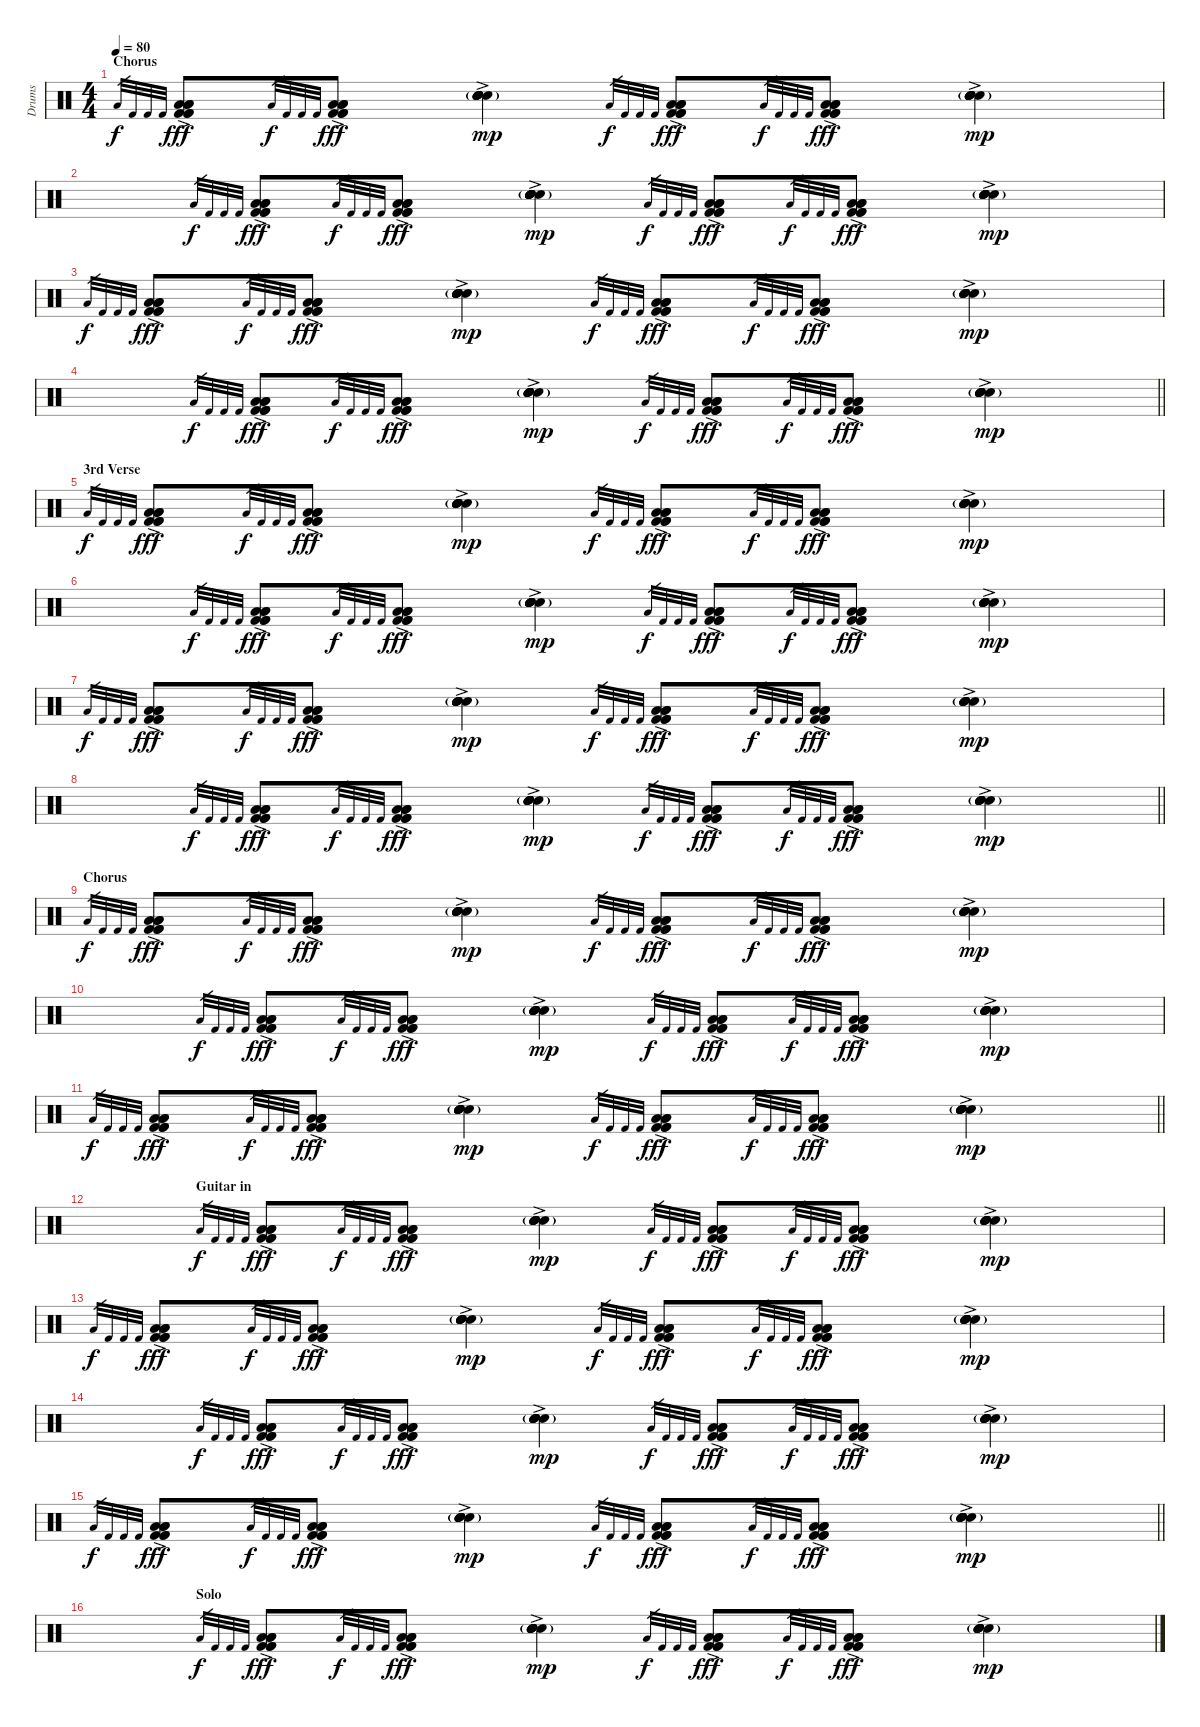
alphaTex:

\track ("Drums" "Drums") {instrument percussion}
\staff {score}
\articulation defaults
\ts (4 4)
\section ("" "Chorus")
\tempo 80
\clef neutral
\ks c "Low Tom (hit)".32{gr dy f} "Kick (hit) 2".32{gr} "Kick (hit) 2".32{gr} "Kick (hit) 2".32{gr}
("Low Floor Tom (hit)"{ac} "Low Tom (hit)"{ac} "Low Tom (hit)"{ac} "Kick (hit) 2"{ac} "Kick (hit) 2"{ac} "Kick (hit) 2"{ac}).8{dy fff} "Low Tom (hit)".32{gr dy f} "Kick (hit) 2".32{gr} "Kick (hit) 2".32{gr} "Kick (hit) 2".32{gr} ("Low Floor Tom (hit)"{ac} "Low Tom (hit)"{ac} "Low Tom (hit)"{ac} "Kick (hit) 2"{ac} "Kick (hit) 2"{ac} "Kick (hit) 2"{ac}).8{dy fff} ("Hand Clap (hit)"{ac} "Hand Clap (hit)"{ac} "Hand Clap (hit)"{ac} "Hand Clap (hit)"{ac} "Hand Clap (hit)"{ac} "Electric Snare (hit)"{g ac}).4{dy mp} "Low Tom (hit)".32{gr dy f} "Kick (hit) 2".32{gr} "Kick (hit) 2".32{gr} "Kick (hit) 2".32{gr} ("Low Floor Tom (hit)"{ac} "Low Tom (hit)"{ac} "Low Tom (hit)"{ac} "Kick (hit) 2"{ac} "Kick (hit) 2"{ac} "Kick (hit) 2"{ac}).8{dy fff} "Low Tom (hit)".32{gr dy f} "Kick (hit) 2".32{gr} "Kick (hit) 2".32{gr} "Kick (hit) 2".32{gr} ("Low Floor Tom (hit)"{ac} "Low Tom (hit)"{ac} "Low Tom (hit)"{ac} "Kick (hit) 2"{ac} "Kick (hit) 2"{ac} "Kick (hit) 2"{ac}).8{dy fff} ("Hand Clap (hit)"{ac} "Hand Clap (hit)"{ac} "Hand Clap (hit)"{ac} "Hand Clap (hit)"{ac} "Hand Clap (hit)"{ac} "Electric Snare (hit)"{g ac}).4{dy mp} |
"Low Tom (hit)".32{gr dy f} "Kick (hit) 2".32{gr} "Kick (hit) 2".32{gr} "Kick (hit) 2".32{gr} ("Low Floor Tom (hit)"{ac} "Low Tom (hit)"{ac} "Low Tom (hit)"{ac} "Kick (hit) 2"{ac} "Kick (hit) 2"{ac} "Kick (hit) 2"{ac}).8{dy fff} "Low Tom (hit)".32{gr dy f} "Kick (hit) 2".32{gr} "Kick (hit) 2".32{gr} "Kick (hit) 2".32{gr} ("Low Floor Tom (hit)"{ac} "Low Tom (hit)"{ac} "Low Tom (hit)"{ac} "Kick (hit) 2"{ac} "Kick (hit) 2"{ac} "Kick (hit) 2"{ac}).8{dy fff} ("Hand Clap (hit)"{ac} "Hand Clap (hit)"{ac} "Hand Clap (hit)"{ac} "Hand Clap (hit)"{ac} "Hand Clap (hit)"{ac} "Electric Snare (hit)"{g ac}).4{dy mp} "Low Tom (hit)".32{gr dy f} "Kick (hit) 2".32{gr} "Kick (hit) 2".32{gr} "Kick (hit) 2".32{gr} ("Low Floor Tom (hit)"{ac} "Low Tom (hit)"{ac} "Low Tom (hit)"{ac} "Kick (hit) 2"{ac} "Kick (hit) 2"{ac} "Kick (hit) 2"{ac}).8{dy fff} "Low Tom (hit)".32{gr dy f} "Kick (hit) 2".32{gr} "Kick (hit) 2".32{gr} "Kick (hit) 2".32{gr} ("Low Floor Tom (hit)"{ac} "Low Tom (hit)"{ac} "Low Tom (hit)"{ac} "Kick (hit) 2"{ac} "Kick (hit) 2"{ac} "Kick (hit) 2"{ac}).8{dy fff} ("Hand Clap (hit)"{ac} "Hand Clap (hit)"{ac} "Hand Clap (hit)"{ac} "Hand Clap (hit)"{ac} "Hand Clap (hit)"{ac} "Electric Snare (hit)"{g ac}).4{dy mp} |
"Low Tom (hit)".32{gr dy f} "Kick (hit) 2".32{gr} "Kick (hit) 2".32{gr} "Kick (hit) 2".32{gr} ("Low Floor Tom (hit)"{ac} "Low Tom (hit)"{ac} "Low Tom (hit)"{ac} "Kick (hit) 2"{ac} "Kick (hit) 2"{ac} "Kick (hit) 2"{ac}).8{dy fff} "Low Tom (hit)".32{gr dy f} "Kick (hit) 2".32{gr} "Kick (hit) 2".32{gr} "Kick (hit) 2".32{gr} ("Low Floor Tom (hit)"{ac} "Low Tom (hit)"{ac} "Low Tom (hit)"{ac} "Kick (hit) 2"{ac} "Kick (hit) 2"{ac} "Kick (hit) 2"{ac}).8{dy fff} ("Hand Clap (hit)"{ac} "Hand Clap (hit)"{ac} "Hand Clap (hit)"{ac} "Hand Clap (hit)"{ac} "Hand Clap (hit)"{ac} "Electric Snare (hit)"{g ac}).4{dy mp} "Low Tom (hit)".32{gr dy f} "Kick (hit) 2".32{gr} "Kick (hit) 2".32{gr} "Kick (hit) 2".32{gr} ("Low Floor Tom (hit)"{ac} "Low Tom (hit)"{ac} "Low Tom (hit)"{ac} "Kick (hit) 2"{ac} "Kick (hit) 2"{ac} "Kick (hit) 2"{ac}).8{dy fff} "Low Tom (hit)".32{gr dy f} "Kick (hit) 2".32{gr} "Kick (hit) 2".32{gr} "Kick (hit) 2".32{gr} ("Low Floor Tom (hit)"{ac} "Low Tom (hit)"{ac} "Low Tom (hit)"{ac} "Kick (hit) 2"{ac} "Kick (hit) 2"{ac} "Kick (hit) 2"{ac}).8{dy fff} ("Hand Clap (hit)"{ac} "Hand Clap (hit)"{ac} "Hand Clap (hit)"{ac} "Hand Clap (hit)"{ac} "Hand Clap (hit)"{ac} "Electric Snare (hit)"{g ac}).4{dy mp} |
\barLineRight lightlight "Low Tom (hit)".32{gr dy f} "Kick (hit) 2".32{gr} "Kick (hit) 2".32{gr} "Kick (hit) 2".32{gr}
("Low Floor Tom (hit)"{ac} "Low Tom (hit)"{ac} "Low Tom (hit)"{ac} "Kick (hit) 2"{ac} "Kick (hit) 2"{ac} "Kick (hit) 2"{ac}).8{dy fff} "Low Tom (hit)".32{gr dy f} "Kick (hit) 2".32{gr} "Kick (hit) 2".32{gr} "Kick (hit) 2".32{gr} ("Low Floor Tom (hit)"{ac} "Low Tom (hit)"{ac} "Low Tom (hit)"{ac} "Kick (hit) 2"{ac} "Kick (hit) 2"{ac} "Kick (hit) 2"{ac}).8{dy fff} ("Hand Clap (hit)"{ac} "Hand Clap (hit)"{ac} "Hand Clap (hit)"{ac} "Hand Clap (hit)"{ac} "Hand Clap (hit)"{ac} "Electric Snare (hit)"{g ac}).4{dy mp} "Low Tom (hit)".32{gr dy f} "Kick (hit) 2".32{gr} "Kick (hit) 2".32{gr} "Kick (hit) 2".32{gr} ("Low Floor Tom (hit)"{ac} "Low Tom (hit)"{ac} "Low Tom (hit)"{ac} "Kick (hit) 2"{ac} "Kick (hit) 2"{ac} "Kick (hit) 2"{ac}).8{dy fff} "Low Tom (hit)".32{gr dy f} "Kick (hit) 2".32{gr} "Kick (hit) 2".32{gr} "Kick (hit) 2".32{gr} ("Low Floor Tom (hit)"{ac} "Low Tom (hit)"{ac} "Low Tom (hit)"{ac} "Kick (hit) 2"{ac} "Kick (hit) 2"{ac} "Kick (hit) 2"{ac}).8{dy fff} ("Hand Clap (hit)"{ac} "Hand Clap (hit)"{ac} "Hand Clap (hit)"{ac} "Hand Clap (hit)"{ac} "Hand Clap (hit)"{ac} "Electric Snare (hit)"{g ac}).4{dy mp} |
\section ("" "3rd Verse")
"Low Tom (hit)".32{gr dy f} "Kick (hit) 2".32{gr} "Kick (hit) 2".32{gr} "Kick (hit) 2".32{gr} ("Low Floor Tom (hit)"{ac} "Low Tom (hit)"{ac} "Low Tom (hit)"{ac} "Kick (hit) 2"{ac} "Kick (hit) 2"{ac} "Kick (hit) 2"{ac}).8{dy fff} "Low Tom (hit)".32{gr dy f} "Kick (hit) 2".32{gr} "Kick (hit) 2".32{gr} "Kick (hit) 2".32{gr} ("Low Floor Tom (hit)"{ac} "Low Tom (hit)"{ac} "Low Tom (hit)"{ac} "Kick (hit) 2"{ac} "Kick (hit) 2"{ac} "Kick (hit) 2"{ac}).8{dy fff} ("Hand Clap (hit)"{ac} "Hand Clap (hit)"{ac} "Hand Clap (hit)"{ac} "Hand Clap (hit)"{ac} "Hand Clap (hit)"{ac} "Electric Snare (hit)"{g ac}).4{dy mp} "Low Tom (hit)".32{gr dy f} "Kick (hit) 2".32{gr} "Kick (hit) 2".32{gr} "Kick (hit) 2".32{gr} ("Low Floor Tom (hit)"{ac} "Low Tom (hit)"{ac} "Low Tom (hit)"{ac} "Kick (hit) 2"{ac} "Kick (hit) 2"{ac} "Kick (hit) 2"{ac}).8{dy fff} "Low Tom (hit)".32{gr dy f} "Kick (hit) 2".32{gr} "Kick (hit) 2".32{gr} "Kick (hit) 2".32{gr} ("Low Floor Tom (hit)"{ac} "Low Tom (hit)"{ac} "Low Tom (hit)"{ac} "Kick (hit) 2"{ac} "Kick (hit) 2"{ac} "Kick (hit) 2"{ac}).8{dy fff} ("Hand Clap (hit)"{ac} "Hand Clap (hit)"{ac} "Hand Clap (hit)"{ac} "Hand Clap (hit)"{ac} "Hand Clap (hit)"{ac} "Electric Snare (hit)"{g ac}).4{dy mp} |
"Low Tom (hit)".32{gr dy f} "Kick (hit) 2".32{gr} "Kick (hit) 2".32{gr} "Kick (hit) 2".32{gr} ("Low Floor Tom (hit)"{ac} "Low Tom (hit)"{ac} "Low Tom (hit)"{ac} "Kick (hit) 2"{ac} "Kick (hit) 2"{ac} "Kick (hit) 2"{ac}).8{dy fff} "Low Tom (hit)".32{gr dy f} "Kick (hit) 2".32{gr} "Kick (hit) 2".32{gr} "Kick (hit) 2".32{gr} ("Low Floor Tom (hit)"{ac} "Low Tom (hit)"{ac} "Low Tom (hit)"{ac} "Kick (hit) 2"{ac} "Kick (hit) 2"{ac} "Kick (hit) 2"{ac}).8{dy fff} ("Hand Clap (hit)"{ac} "Hand Clap (hit)"{ac} "Hand Clap (hit)"{ac} "Hand Clap (hit)"{ac} "Hand Clap (hit)"{ac} "Electric Snare (hit)"{g ac}).4{dy mp} "Low Tom (hit)".32{gr dy f} "Kick (hit) 2".32{gr} "Kick (hit) 2".32{gr} "Kick (hit) 2".32{gr} ("Low Floor Tom (hit)"{ac} "Low Tom (hit)"{ac} "Low Tom (hit)"{ac} "Kick (hit) 2"{ac} "Kick (hit) 2"{ac} "Kick (hit) 2"{ac}).8{dy fff} "Low Tom (hit)".32{gr dy f} "Kick (hit) 2".32{gr} "Kick (hit) 2".32{gr} "Kick (hit) 2".32{gr} ("Low Floor Tom (hit)"{ac} "Low Tom (hit)"{ac} "Low Tom (hit)"{ac} "Kick (hit) 2"{ac} "Kick (hit) 2"{ac} "Kick (hit) 2"{ac}).8{dy fff} ("Hand Clap (hit)"{ac} "Hand Clap (hit)"{ac} "Hand Clap (hit)"{ac} "Hand Clap (hit)"{ac} "Hand Clap (hit)"{ac} "Electric Snare (hit)"{g ac}).4{dy mp} |
"Low Tom (hit)".32{gr dy f} "Kick (hit) 2".32{gr} "Kick (hit) 2".32{gr} "Kick (hit) 2".32{gr} ("Low Floor Tom (hit)"{ac} "Low Tom (hit)"{ac} "Low Tom (hit)"{ac} "Kick (hit) 2"{ac} "Kick (hit) 2"{ac} "Kick (hit) 2"{ac}).8{dy fff} "Low Tom (hit)".32{gr dy f} "Kick (hit) 2".32{gr} "Kick (hit) 2".32{gr} "Kick (hit) 2".32{gr} ("Low Floor Tom (hit)"{ac} "Low Tom (hit)"{ac} "Low Tom (hit)"{ac} "Kick (hit) 2"{ac} "Kick (hit) 2"{ac} "Kick (hit) 2"{ac}).8{dy fff} ("Hand Clap (hit)"{ac} "Hand Clap (hit)"{ac} "Hand Clap (hit)"{ac} "Hand Clap (hit)"{ac} "Hand Clap (hit)"{ac} "Electric Snare (hit)"{g ac}).4{dy mp} "Low Tom (hit)".32{gr dy f} "Kick (hit) 2".32{gr} "Kick (hit) 2".32{gr} "Kick (hit) 2".32{gr} ("Low Floor Tom (hit)"{ac} "Low Tom (hit)"{ac} "Low Tom (hit)"{ac} "Kick (hit) 2"{ac} "Kick (hit) 2"{ac} "Kick (hit) 2"{ac}).8{dy fff} "Low Tom (hit)".32{gr dy f} "Kick (hit) 2".32{gr} "Kick (hit) 2".32{gr} "Kick (hit) 2".32{gr} ("Low Floor Tom (hit)"{ac} "Low Tom (hit)"{ac} "Low Tom (hit)"{ac} "Kick (hit) 2"{ac} "Kick (hit) 2"{ac} "Kick (hit) 2"{ac}).8{dy fff} ("Hand Clap (hit)"{ac} "Hand Clap (hit)"{ac} "Hand Clap (hit)"{ac} "Hand Clap (hit)"{ac} "Hand Clap (hit)"{ac} "Electric Snare (hit)"{g ac}).4{dy mp} |
\barLineRight lightlight "Low Tom (hit)".32{gr dy f} "Kick (hit) 2".32{gr} "Kick (hit) 2".32{gr} "Kick (hit) 2".32{gr}
("Low Floor Tom (hit)"{ac} "Low Tom (hit)"{ac} "Low Tom (hit)"{ac} "Kick (hit) 2"{ac} "Kick (hit) 2"{ac} "Kick (hit) 2"{ac}).8{dy fff} "Low Tom (hit)".32{gr dy f} "Kick (hit) 2".32{gr} "Kick (hit) 2".32{gr} "Kick (hit) 2".32{gr} ("Low Floor Tom (hit)"{ac} "Low Tom (hit)"{ac} "Low Tom (hit)"{ac} "Kick (hit) 2"{ac} "Kick (hit) 2"{ac} "Kick (hit) 2"{ac}).8{dy fff} ("Hand Clap (hit)"{ac} "Hand Clap (hit)"{ac} "Hand Clap (hit)"{ac} "Hand Clap (hit)"{ac} "Hand Clap (hit)"{ac} "Electric Snare (hit)"{g ac}).4{dy mp} "Low Tom (hit)".32{gr dy f} "Kick (hit) 2".32{gr} "Kick (hit) 2".32{gr} "Kick (hit) 2".32{gr} ("Low Floor Tom (hit)"{ac} "Low Tom (hit)"{ac} "Low Tom (hit)"{ac} "Kick (hit) 2"{ac} "Kick (hit) 2"{ac} "Kick (hit) 2"{ac}).8{dy fff} "Low Tom (hit)".32{gr dy f} "Kick (hit) 2".32{gr} "Kick (hit) 2".32{gr} "Kick (hit) 2".32{gr} ("Low Floor Tom (hit)"{ac} "Low Tom (hit)"{ac} "Low Tom (hit)"{ac} "Kick (hit) 2"{ac} "Kick (hit) 2"{ac} "Kick (hit) 2"{ac}).8{dy fff} ("Hand Clap (hit)"{ac} "Hand Clap (hit)"{ac} "Hand Clap (hit)"{ac} "Hand Clap (hit)"{ac} "Hand Clap (hit)"{ac} "Electric Snare (hit)"{g ac}).4{dy mp} |
\section ("" "Chorus")
"Low Tom (hit)".32{gr dy f} "Kick (hit) 2".32{gr} "Kick (hit) 2".32{gr} "Kick (hit) 2".32{gr} ("Low Floor Tom (hit)"{ac} "Low Tom (hit)"{ac} "Low Tom (hit)"{ac} "Kick (hit) 2"{ac} "Kick (hit) 2"{ac} "Kick (hit) 2"{ac}).8{dy fff} "Low Tom (hit)".32{gr dy f} "Kick (hit) 2".32{gr} "Kick (hit) 2".32{gr} "Kick (hit) 2".32{gr} ("Low Floor Tom (hit)"{ac} "Low Tom (hit)"{ac} "Low Tom (hit)"{ac} "Kick (hit) 2"{ac} "Kick (hit) 2"{ac} "Kick (hit) 2"{ac}).8{dy fff} ("Hand Clap (hit)"{ac} "Hand Clap (hit)"{ac} "Hand Clap (hit)"{ac} "Hand Clap (hit)"{ac} "Hand Clap (hit)"{ac} "Electric Snare (hit)"{g ac}).4{dy mp} "Low Tom (hit)".32{gr dy f} "Kick (hit) 2".32{gr} "Kick (hit) 2".32{gr} "Kick (hit) 2".32{gr} ("Low Floor Tom (hit)"{ac} "Low Tom (hit)"{ac} "Low Tom (hit)"{ac} "Kick (hit) 2"{ac} "Kick (hit) 2"{ac} "Kick (hit) 2"{ac}).8{dy fff} "Low Tom (hit)".32{gr dy f} "Kick (hit) 2".32{gr} "Kick (hit) 2".32{gr} "Kick (hit) 2".32{gr} ("Low Floor Tom (hit)"{ac} "Low Tom (hit)"{ac} "Low Tom (hit)"{ac} "Kick (hit) 2"{ac} "Kick (hit) 2"{ac} "Kick (hit) 2"{ac}).8{dy fff} ("Hand Clap (hit)"{ac} "Hand Clap (hit)"{ac} "Hand Clap (hit)"{ac} "Hand Clap (hit)"{ac} "Hand Clap (hit)"{ac} "Electric Snare (hit)"{g ac}).4{dy mp} |
"Low Tom (hit)".32{gr dy f} "Kick (hit) 2".32{gr} "Kick (hit) 2".32{gr} "Kick (hit) 2".32{gr} ("Low Floor Tom (hit)"{ac} "Low Tom (hit)"{ac} "Low Tom (hit)"{ac} "Kick (hit) 2"{ac} "Kick (hit) 2"{ac} "Kick (hit) 2"{ac}).8{dy fff} "Low Tom (hit)".32{gr dy f} "Kick (hit) 2".32{gr} "Kick (hit) 2".32{gr} "Kick (hit) 2".32{gr} ("Low Floor Tom (hit)"{ac} "Low Tom (hit)"{ac} "Low Tom (hit)"{ac} "Kick (hit) 2"{ac} "Kick (hit) 2"{ac} "Kick (hit) 2"{ac}).8{dy fff} ("Hand Clap (hit)"{ac} "Hand Clap (hit)"{ac} "Hand Clap (hit)"{ac} "Hand Clap (hit)"{ac} "Hand Clap (hit)"{ac} "Electric Snare (hit)"{g ac}).4{dy mp} "Low Tom (hit)".32{gr dy f} "Kick (hit) 2".32{gr} "Kick (hit) 2".32{gr} "Kick (hit) 2".32{gr} ("Low Floor Tom (hit)"{ac} "Low Tom (hit)"{ac} "Low Tom (hit)"{ac} "Kick (hit) 2"{ac} "Kick (hit) 2"{ac} "Kick (hit) 2"{ac}).8{dy fff} "Low Tom (hit)".32{gr dy f} "Kick (hit) 2".32{gr} "Kick (hit) 2".32{gr} "Kick (hit) 2".32{gr} ("Low Floor Tom (hit)"{ac} "Low Tom (hit)"{ac} "Low Tom (hit)"{ac} "Kick (hit) 2"{ac} "Kick (hit) 2"{ac} "Kick (hit) 2"{ac}).8{dy fff} ("Hand Clap (hit)"{ac} "Hand Clap (hit)"{ac} "Hand Clap (hit)"{ac} "Hand Clap (hit)"{ac} "Hand Clap (hit)"{ac} "Electric Snare (hit)"{g ac}).4{dy mp} |
\barLineRight lightlight "Low Tom (hit)".32{gr dy f} "Kick (hit) 2".32{gr} "Kick (hit) 2".32{gr} "Kick (hit) 2".32{gr}
("Low Floor Tom (hit)"{ac} "Low Tom (hit)"{ac} "Low Tom (hit)"{ac} "Kick (hit) 2"{ac} "Kick (hit) 2"{ac} "Kick (hit) 2"{ac}).8{dy fff} "Low Tom (hit)".32{gr dy f} "Kick (hit) 2".32{gr} "Kick (hit) 2".32{gr} "Kick (hit) 2".32{gr} ("Low Floor Tom (hit)"{ac} "Low Tom (hit)"{ac} "Low Tom (hit)"{ac} "Kick (hit) 2"{ac} "Kick (hit) 2"{ac} "Kick (hit) 2"{ac}).8{dy fff} ("Hand Clap (hit)"{ac} "Hand Clap (hit)"{ac} "Hand Clap (hit)"{ac} "Hand Clap (hit)"{ac} "Hand Clap (hit)"{ac} "Electric Snare (hit)"{g ac}).4{dy mp} "Low Tom (hit)".32{gr dy f} "Kick (hit) 2".32{gr} "Kick (hit) 2".32{gr} "Kick (hit) 2".32{gr} ("Low Floor Tom (hit)"{ac} "Low Tom (hit)"{ac} "Low Tom (hit)"{ac} "Kick (hit) 2"{ac} "Kick (hit) 2"{ac} "Kick (hit) 2"{ac}).8{dy fff} "Low Tom (hit)".32{gr dy f} "Kick (hit) 2".32{gr} "Kick (hit) 2".32{gr} "Kick (hit) 2".32{gr} ("Low Floor Tom (hit)"{ac} "Low Tom (hit)"{ac} "Low Tom (hit)"{ac} "Kick (hit) 2"{ac} "Kick (hit) 2"{ac} "Kick (hit) 2"{ac}).8{dy fff} ("Hand Clap (hit)"{ac} "Hand Clap (hit)"{ac} "Hand Clap (hit)"{ac} "Hand Clap (hit)"{ac} "Hand Clap (hit)"{ac} "Electric Snare (hit)"{g ac}).4{dy mp} |
\section ("" "Guitar in")
"Low Tom (hit)".32{gr dy f} "Kick (hit) 2".32{gr} "Kick (hit) 2".32{gr} "Kick (hit) 2".32{gr} ("Low Floor Tom (hit)"{ac} "Low Tom (hit)"{ac} "Low Tom (hit)"{ac} "Kick (hit) 2"{ac} "Kick (hit) 2"{ac} "Kick (hit) 2"{ac}).8{dy fff} "Low Tom (hit)".32{gr dy f} "Kick (hit) 2".32{gr} "Kick (hit) 2".32{gr} "Kick (hit) 2".32{gr} ("Low Floor Tom (hit)"{ac} "Low Tom (hit)"{ac} "Low Tom (hit)"{ac} "Kick (hit) 2"{ac} "Kick (hit) 2"{ac} "Kick (hit) 2"{ac}).8{dy fff} ("Hand Clap (hit)"{ac} "Hand Clap (hit)"{ac} "Hand Clap (hit)"{ac} "Hand Clap (hit)"{ac} "Hand Clap (hit)"{ac} "Electric Snare (hit)"{g ac}).4{dy mp} "Low Tom (hit)".32{gr dy f} "Kick (hit) 2".32{gr} "Kick (hit) 2".32{gr} "Kick (hit) 2".32{gr} ("Low Floor Tom (hit)"{ac} "Low Tom (hit)"{ac} "Low Tom (hit)"{ac} "Kick (hit) 2"{ac} "Kick (hit) 2"{ac} "Kick (hit) 2"{ac}).8{dy fff} "Low Tom (hit)".32{gr dy f} "Kick (hit) 2".32{gr} "Kick (hit) 2".32{gr} "Kick (hit) 2".32{gr} ("Low Floor Tom (hit)"{ac} "Low Tom (hit)"{ac} "Low Tom (hit)"{ac} "Kick (hit) 2"{ac} "Kick (hit) 2"{ac} "Kick (hit) 2"{ac}).8{dy fff} ("Hand Clap (hit)"{ac} "Hand Clap (hit)"{ac} "Hand Clap (hit)"{ac} "Hand Clap (hit)"{ac} "Hand Clap (hit)"{ac} "Electric Snare (hit)"{g ac}).4{dy mp} |
"Low Tom (hit)".32{gr dy f} "Kick (hit) 2".32{gr} "Kick (hit) 2".32{gr} "Kick (hit) 2".32{gr} ("Low Floor Tom (hit)"{ac} "Low Tom (hit)"{ac} "Low Tom (hit)"{ac} "Kick (hit) 2"{ac} "Kick (hit) 2"{ac} "Kick (hit) 2"{ac}).8{dy fff} "Low Tom (hit)".32{gr dy f} "Kick (hit) 2".32{gr} "Kick (hit) 2".32{gr} "Kick (hit) 2".32{gr} ("Low Floor Tom (hit)"{ac} "Low Tom (hit)"{ac} "Low Tom (hit)"{ac} "Kick (hit) 2"{ac} "Kick (hit) 2"{ac} "Kick (hit) 2"{ac}).8{dy fff} ("Hand Clap (hit)"{ac} "Hand Clap (hit)"{ac} "Hand Clap (hit)"{ac} "Hand Clap (hit)"{ac} "Hand Clap (hit)"{ac} "Electric Snare (hit)"{g ac}).4{dy mp} "Low Tom (hit)".32{gr dy f} "Kick (hit) 2".32{gr} "Kick (hit) 2".32{gr} "Kick (hit) 2".32{gr} ("Low Floor Tom (hit)"{ac} "Low Tom (hit)"{ac} "Low Tom (hit)"{ac} "Kick (hit) 2"{ac} "Kick (hit) 2"{ac} "Kick (hit) 2"{ac}).8{dy fff} "Low Tom (hit)".32{gr dy f} "Kick (hit) 2".32{gr} "Kick (hit) 2".32{gr} "Kick (hit) 2".32{gr} ("Low Floor Tom (hit)"{ac} "Low Tom (hit)"{ac} "Low Tom (hit)"{ac} "Kick (hit) 2"{ac} "Kick (hit) 2"{ac} "Kick (hit) 2"{ac}).8{dy fff} ("Hand Clap (hit)"{ac} "Hand Clap (hit)"{ac} "Hand Clap (hit)"{ac} "Hand Clap (hit)"{ac} "Hand Clap (hit)"{ac} "Electric Snare (hit)"{g ac}).4{dy mp} |
"Low Tom (hit)".32{gr dy f} "Kick (hit) 2".32{gr} "Kick (hit) 2".32{gr} "Kick (hit) 2".32{gr} ("Low Floor Tom (hit)"{ac} "Low Tom (hit)"{ac} "Low Tom (hit)"{ac} "Kick (hit) 2"{ac} "Kick (hit) 2"{ac} "Kick (hit) 2"{ac}).8{dy fff} "Low Tom (hit)".32{gr dy f} "Kick (hit) 2".32{gr} "Kick (hit) 2".32{gr} "Kick (hit) 2".32{gr} ("Low Floor Tom (hit)"{ac} "Low Tom (hit)"{ac} "Low Tom (hit)"{ac} "Kick (hit) 2"{ac} "Kick (hit) 2"{ac} "Kick (hit) 2"{ac}).8{dy fff} ("Hand Clap (hit)"{ac} "Hand Clap (hit)"{ac} "Hand Clap (hit)"{ac} "Hand Clap (hit)"{ac} "Hand Clap (hit)"{ac} "Electric Snare (hit)"{g ac}).4{dy mp} "Low Tom (hit)".32{gr dy f} "Kick (hit) 2".32{gr} "Kick (hit) 2".32{gr} "Kick (hit) 2".32{gr} ("Low Floor Tom (hit)"{ac} "Low Tom (hit)"{ac} "Low Tom (hit)"{ac} "Kick (hit) 2"{ac} "Kick (hit) 2"{ac} "Kick (hit) 2"{ac}).8{dy fff} "Low Tom (hit)".32{gr dy f} "Kick (hit) 2".32{gr} "Kick (hit) 2".32{gr} "Kick (hit) 2".32{gr} ("Low Floor Tom (hit)"{ac} "Low Tom (hit)"{ac} "Low Tom (hit)"{ac} "Kick (hit) 2"{ac} "Kick (hit) 2"{ac} "Kick (hit) 2"{ac}).8{dy fff} ("Hand Clap (hit)"{ac} "Hand Clap (hit)"{ac} "Hand Clap (hit)"{ac} "Hand Clap (hit)"{ac} "Hand Clap (hit)"{ac} "Electric Snare (hit)"{g ac}).4{dy mp} |
\barLineRight lightlight "Low Tom (hit)".32{gr dy f} "Kick (hit) 2".32{gr} "Kick (hit) 2".32{gr} "Kick (hit) 2".32{gr}
("Low Floor Tom (hit)"{ac} "Low Tom (hit)"{ac} "Low Tom (hit)"{ac} "Kick (hit) 2"{ac} "Kick (hit) 2"{ac} "Kick (hit) 2"{ac}).8{dy fff} "Low Tom (hit)".32{gr dy f} "Kick (hit) 2".32{gr} "Kick (hit) 2".32{gr} "Kick (hit) 2".32{gr} ("Low Floor Tom (hit)"{ac} "Low Tom (hit)"{ac} "Low Tom (hit)"{ac} "Kick (hit) 2"{ac} "Kick (hit) 2"{ac} "Kick (hit) 2"{ac}).8{dy fff} ("Hand Clap (hit)"{ac} "Hand Clap (hit)"{ac} "Hand Clap (hit)"{ac} "Hand Clap (hit)"{ac} "Hand Clap (hit)"{ac} "Electric Snare (hit)"{g ac}).4{dy mp} "Low Tom (hit)".32{gr dy f} "Kick (hit) 2".32{gr} "Kick (hit) 2".32{gr} "Kick (hit) 2".32{gr} ("Low Floor Tom (hit)"{ac} "Low Tom (hit)"{ac} "Low Tom (hit)"{ac} "Kick (hit) 2"{ac} "Kick (hit) 2"{ac} "Kick (hit) 2"{ac}).8{dy fff} "Low Tom (hit)".32{gr dy f} "Kick (hit) 2".32{gr} "Kick (hit) 2".32{gr} "Kick (hit) 2".32{gr} ("Low Floor Tom (hit)"{ac} "Low Tom (hit)"{ac} "Low Tom (hit)"{ac} "Kick (hit) 2"{ac} "Kick (hit) 2"{ac} "Kick (hit) 2"{ac}).8{dy fff} ("Hand Clap (hit)"{ac} "Hand Clap (hit)"{ac} "Hand Clap (hit)"{ac} "Hand Clap (hit)"{ac} "Hand Clap (hit)"{ac} "Electric Snare (hit)"{g ac}).4{dy mp} |
\section ("" "Solo")
"Low Tom (hit)".32{gr dy f} "Kick (hit) 2".32{gr} "Kick (hit) 2".32{gr} "Kick (hit) 2".32{gr} ("Low Floor Tom (hit)"{ac} "Low Tom (hit)"{ac} "Low Tom (hit)"{ac} "Kick (hit) 2"{ac} "Kick (hit) 2"{ac} "Kick (hit) 2"{ac}).8{dy fff} "Low Tom (hit)".32{gr dy f} "Kick (hit) 2".32{gr} "Kick (hit) 2".32{gr} "Kick (hit) 2".32{gr} ("Low Floor Tom (hit)"{ac} "Low Tom (hit)"{ac} "Low Tom (hit)"{ac} "Kick (hit) 2"{ac} "Kick (hit) 2"{ac} "Kick (hit) 2"{ac}).8{dy fff} ("Hand Clap (hit)"{ac} "Hand Clap (hit)"{ac} "Hand Clap (hit)"{ac} "Hand Clap (hit)"{ac} "Hand Clap (hit)"{ac} "Electric Snare (hit)"{g ac}).4{dy mp} "Low Tom (hit)".32{gr dy f} "Kick (hit) 2".32{gr} "Kick (hit) 2".32{gr} "Kick (hit) 2".32{gr} ("Low Floor Tom (hit)"{ac} "Low Tom (hit)"{ac} "Low Tom (hit)"{ac} "Kick (hit) 2"{ac} "Kick (hit) 2"{ac} "Kick (hit) 2"{ac}).8{dy fff} "Low Tom (hit)".32{gr dy f} "Kick (hit) 2".32{gr} "Kick (hit) 2".32{gr} "Kick (hit) 2".32{gr} ("Low Floor Tom (hit)"{ac} "Low Tom (hit)"{ac} "Low Tom (hit)"{ac} "Kick (hit) 2"{ac} "Kick (hit) 2"{ac} "Kick (hit) 2"{ac}).8{dy fff} ("Hand Clap (hit)"{ac} "Hand Clap (hit)"{ac} "Hand Clap (hit)"{ac} "Hand Clap (hit)"{ac} "Hand Clap (hit)"{ac} "Electric Snare (hit)"{g ac}).4{dy mp}
